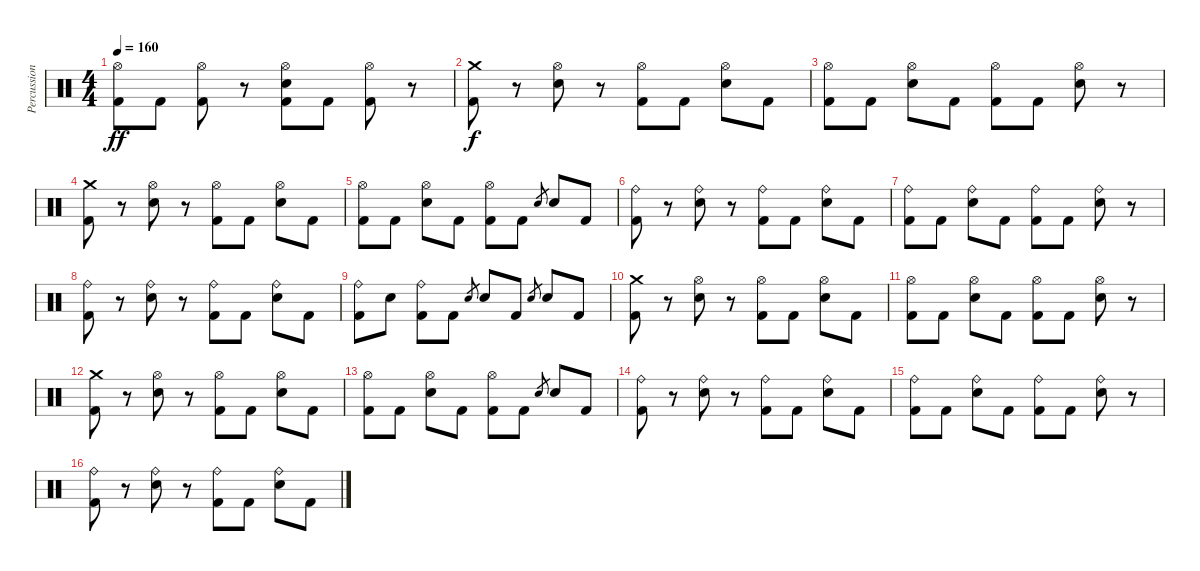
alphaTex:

\track ("Percussion" "Percussion") {instrument percussion}
\staff {score}
\articulation defaults
\ts (4 4)
\tempo 160
\clef neutral
\ks c
("Hi-Hat (open)" "Kick (hit) 2").8{dy ff} "Kick (hit) 2".8 ("Hi-Hat (open)" "Kick (hit) 2").8 r.8 ("Hi-Hat (open)" "Electric Snare (hit)" "Kick (hit) 2").8 "Kick (hit) 2".8 ("Hi-Hat (open)" "Kick (hit) 2").8 r.8 |
("Crash medium (hit)" "Kick (hit) 2").8{dy f} r.8 ("Hi-Hat (open)" "Electric Snare (hit)").8 r.8 ("Hi-Hat (open)" "Kick (hit) 2").8 "Kick (hit) 2".8 ("Hi-Hat (open)" "Electric Snare (hit)").8 "Kick (hit) 2".8 |
("Hi-Hat (open)" "Kick (hit) 2").8 "Kick (hit) 2".8 ("Hi-Hat (open)" "Electric Snare (hit)").8 "Kick (hit) 2".8 ("Hi-Hat (open)" "Kick (hit) 2").8 "Kick (hit) 2".8 ("Hi-Hat (open)" "Electric Snare (hit)").8 r.8 |
("Crash medium (hit)" "Kick (hit) 2").8 r.8 ("Hi-Hat (open)" "Electric Snare (hit)").8 r.8 ("Hi-Hat (open)" "Kick (hit) 2").8 "Kick (hit) 2".8 ("Hi-Hat (open)" "Electric Snare (hit)").8 "Kick (hit) 2".8 |
("Hi-Hat (open)" "Kick (hit) 2").8 "Kick (hit) 2".8 ("Hi-Hat (open)" "Electric Snare (hit)").8 "Kick (hit) 2".8 ("Hi-Hat (open)" "Kick (hit) 2").8 "Kick (hit) 2".8 "Electric Snare (hit)".8{gr} "Electric Snare (hit)".8 "Kick (hit) 2".8 |
("Ride (bell)" "Kick (hit) 2").8 r.8 ("Ride (bell)" "Electric Snare (hit)").8 r.8 ("Ride (bell)" "Kick (hit) 2").8 "Kick (hit) 2".8 ("Ride (bell)" "Electric Snare (hit)").8 "Kick (hit) 2".8 |
("Ride (bell)" "Kick (hit) 2").8 "Kick (hit) 2".8 ("Ride (bell)" "Electric Snare (hit)").8 "Kick (hit) 2".8 ("Ride (bell)" "Kick (hit) 2").8 "Kick (hit) 2".8 ("Ride (bell)" "Electric Snare (hit)").8 r.8 |
("Ride (bell)" "Kick (hit) 2").8 r.8 ("Ride (bell)" "Electric Snare (hit)").8 r.8 ("Ride (bell)" "Kick (hit) 2").8 "Kick (hit) 2".8 ("Ride (bell)" "Electric Snare (hit)").8 "Kick (hit) 2".8 |
("Ride (bell)" "Kick (hit) 2").8 "Electric Snare (hit)".8 ("Ride (bell)" "Kick (hit) 2").8 "Kick (hit) 2".8 "Electric Snare (hit)".8{gr} "Electric Snare (hit)".8 "Kick (hit) 2".8 "Electric Snare (hit)".8{gr} "Electric Snare (hit)".8 "Kick (hit) 2".8 |
("Crash medium (hit)" "Kick (hit) 2").8 r.8 ("Hi-Hat (open)" "Electric Snare (hit)").8 r.8 ("Hi-Hat (open)" "Kick (hit) 2").8 "Kick (hit) 2".8 ("Hi-Hat (open)" "Electric Snare (hit)").8 "Kick (hit) 2".8 |
("Hi-Hat (open)" "Kick (hit) 2").8 "Kick (hit) 2".8 ("Hi-Hat (open)" "Electric Snare (hit)").8 "Kick (hit) 2".8 ("Hi-Hat (open)" "Kick (hit) 2").8 "Kick (hit) 2".8 ("Hi-Hat (open)" "Electric Snare (hit)").8 r.8 |
("Crash medium (hit)" "Kick (hit) 2").8 r.8 ("Hi-Hat (open)" "Electric Snare (hit)").8 r.8 ("Hi-Hat (open)" "Kick (hit) 2").8 "Kick (hit) 2".8 ("Hi-Hat (open)" "Electric Snare (hit)").8 "Kick (hit) 2".8 |
("Hi-Hat (open)" "Kick (hit) 2").8 "Kick (hit) 2".8 ("Hi-Hat (open)" "Electric Snare (hit)").8 "Kick (hit) 2".8 ("Hi-Hat (open)" "Kick (hit) 2").8 "Kick (hit) 2".8 "Electric Snare (hit)".8{gr} "Electric Snare (hit)".8 "Kick (hit) 2".8 |
("Ride (bell)" "Kick (hit) 2").8 r.8 ("Ride (bell)" "Electric Snare (hit)").8 r.8 ("Ride (bell)" "Kick (hit) 2").8 "Kick (hit) 2".8 ("Ride (bell)" "Electric Snare (hit)").8 "Kick (hit) 2".8 |
("Ride (bell)" "Kick (hit) 2").8 "Kick (hit) 2".8 ("Ride (bell)" "Electric Snare (hit)").8 "Kick (hit) 2".8 ("Ride (bell)" "Kick (hit) 2").8 "Kick (hit) 2".8 ("Ride (bell)" "Electric Snare (hit)").8 r.8 |
("Ride (bell)" "Kick (hit) 2").8 r.8 ("Ride (bell)" "Electric Snare (hit)").8 r.8 ("Ride (bell)" "Kick (hit) 2").8 "Kick (hit) 2".8 ("Ride (bell)" "Electric Snare (hit)").8 "Kick (hit) 2".8
